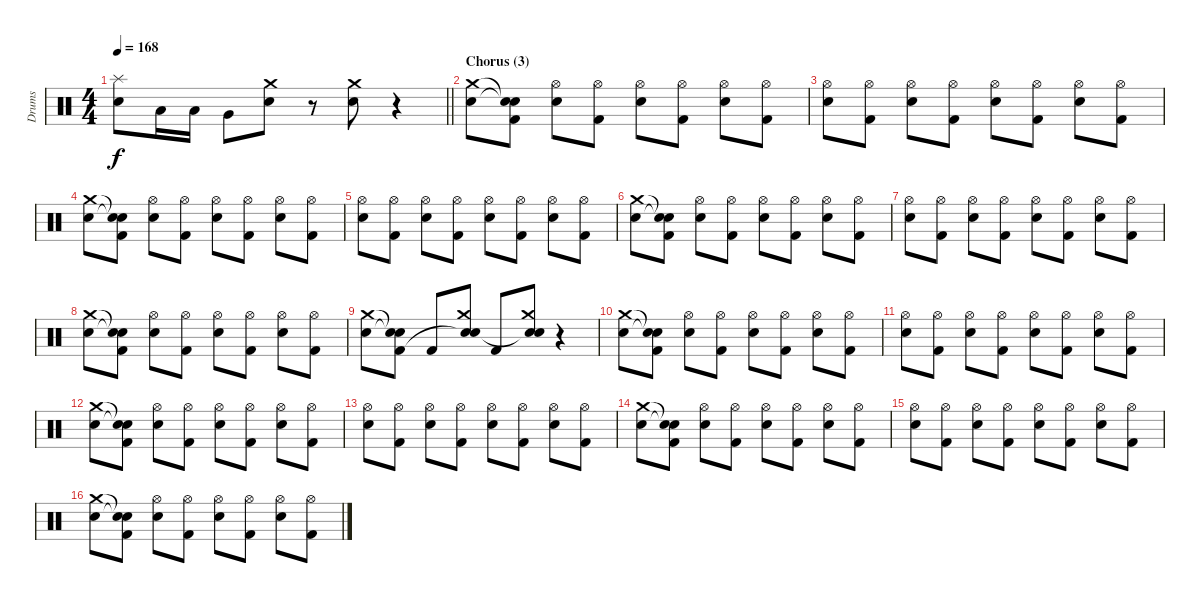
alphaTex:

\track ("Drums" "Drums") {instrument percussion}
\staff {score}
\articulation defaults
\ts (4 4)
\tempo 168
\clef neutral
\barLineRight lightlight
\ks c
("Splash (hit)" "Electric Snare (hit)").8{dy f} "Low Tom (hit)".16 "Low Tom (hit)".16 "Very Low Tom (hit)".8 ("Crash medium (hit)" "Electric Snare (hit)").8 r.8 ("Crash medium (hit)" "Electric Snare (hit)").8 r.4 |
\section ("" "Chorus (3)")
("Crash medium (hit)" "Electric Snare (hit)").8 ("Snare (hit)"{t} "Snare (hit)"{t} "Kick (hit) 2").8 ("Hi-Hat (open)" "Electric Snare (hit)").8 ("Hi-Hat (open)" "Kick (hit) 2").8 ("Hi-Hat (open)" "Electric Snare (hit)").8 ("Hi-Hat (open)" "Kick (hit) 2").8 ("Hi-Hat (open)" "Electric Snare (hit)").8 ("Hi-Hat (open)" "Kick (hit) 2").8 |
("Hi-Hat (open)" "Electric Snare (hit)").8 ("Hi-Hat (open)" "Kick (hit) 2").8 ("Hi-Hat (open)" "Electric Snare (hit)").8 ("Hi-Hat (open)" "Kick (hit) 2").8 ("Hi-Hat (open)" "Electric Snare (hit)").8 ("Hi-Hat (open)" "Kick (hit) 2").8 ("Hi-Hat (open)" "Electric Snare (hit)").8 ("Hi-Hat (open)" "Kick (hit) 2").8 |
("Crash medium (hit)" "Electric Snare (hit)").8 ("Snare (hit)"{t} "Snare (hit)"{t} "Kick (hit) 2").8 ("Hi-Hat (open)" "Electric Snare (hit)").8 ("Hi-Hat (open)" "Kick (hit) 2").8 ("Hi-Hat (open)" "Electric Snare (hit)").8 ("Hi-Hat (open)" "Kick (hit) 2").8 ("Hi-Hat (open)" "Electric Snare (hit)").8 ("Hi-Hat (open)" "Kick (hit) 2").8 |
("Hi-Hat (open)" "Electric Snare (hit)").8 ("Hi-Hat (open)" "Kick (hit) 2").8 ("Hi-Hat (open)" "Electric Snare (hit)").8 ("Hi-Hat (open)" "Kick (hit) 2").8 ("Hi-Hat (open)" "Electric Snare (hit)").8 ("Hi-Hat (open)" "Kick (hit) 2").8 ("Hi-Hat (open)" "Electric Snare (hit)").8 ("Hi-Hat (open)" "Kick (hit) 2").8 |
("Crash medium (hit)" "Electric Snare (hit)").8 ("Snare (hit)"{t} "Snare (hit)"{t} "Kick (hit) 2").8 ("Hi-Hat (open)" "Electric Snare (hit)").8 ("Hi-Hat (open)" "Kick (hit) 2").8 ("Hi-Hat (open)" "Electric Snare (hit)").8 ("Hi-Hat (open)" "Kick (hit) 2").8 ("Hi-Hat (open)" "Electric Snare (hit)").8 ("Hi-Hat (open)" "Kick (hit) 2").8 |
("Hi-Hat (open)" "Electric Snare (hit)").8 ("Hi-Hat (open)" "Kick (hit) 2").8 ("Hi-Hat (open)" "Electric Snare (hit)").8 ("Hi-Hat (open)" "Kick (hit) 2").8 ("Hi-Hat (open)" "Electric Snare (hit)").8 ("Hi-Hat (open)" "Kick (hit) 2").8 ("Hi-Hat (open)" "Electric Snare (hit)").8 ("Hi-Hat (open)" "Kick (hit) 2").8 |
("Crash medium (hit)" "Electric Snare (hit)").8 ("Snare (hit)"{t} "Snare (hit)"{t} "Kick (hit) 2").8 ("Hi-Hat (open)" "Electric Snare (hit)").8 ("Hi-Hat (open)" "Kick (hit) 2").8 ("Hi-Hat (open)" "Electric Snare (hit)").8 ("Hi-Hat (open)" "Kick (hit) 2").8 ("Hi-Hat (open)" "Electric Snare (hit)").8 ("Hi-Hat (open)" "Kick (hit) 2").8 |
("Crash medium (hit)" "Electric Snare (hit)").8 ("Snare (hit)"{t} "Snare (hit)"{t} "Kick (hit) 2").8 "Kick (hit) 2".8 ("Crash medium (hit)" "Electric Snare (hit)" "Snare (hit)"{t}).8 "Kick (hit) 2".8 ("Crash medium (hit)" "Electric Snare (hit)" "Snare (hit)"{t}).8 r.4 |
("Crash medium (hit)" "Electric Snare (hit)").8 ("Snare (hit)"{t} "Snare (hit)"{t} "Kick (hit) 2").8 ("Hi-Hat (open)" "Electric Snare (hit)").8 ("Hi-Hat (open)" "Kick (hit) 2").8 ("Hi-Hat (open)" "Electric Snare (hit)").8 ("Hi-Hat (open)" "Kick (hit) 2").8 ("Hi-Hat (open)" "Electric Snare (hit)").8 ("Hi-Hat (open)" "Kick (hit) 2").8 |
("Hi-Hat (open)" "Electric Snare (hit)").8 ("Hi-Hat (open)" "Kick (hit) 2").8 ("Hi-Hat (open)" "Electric Snare (hit)").8 ("Hi-Hat (open)" "Kick (hit) 2").8 ("Hi-Hat (open)" "Electric Snare (hit)").8 ("Hi-Hat (open)" "Kick (hit) 2").8 ("Hi-Hat (open)" "Electric Snare (hit)").8 ("Hi-Hat (open)" "Kick (hit) 2").8 |
("Crash medium (hit)" "Electric Snare (hit)").8 ("Snare (hit)"{t} "Snare (hit)"{t} "Kick (hit) 2").8 ("Hi-Hat (open)" "Electric Snare (hit)").8 ("Hi-Hat (open)" "Kick (hit) 2").8 ("Hi-Hat (open)" "Electric Snare (hit)").8 ("Hi-Hat (open)" "Kick (hit) 2").8 ("Hi-Hat (open)" "Electric Snare (hit)").8 ("Hi-Hat (open)" "Kick (hit) 2").8 |
("Hi-Hat (open)" "Electric Snare (hit)").8 ("Hi-Hat (open)" "Kick (hit) 2").8 ("Hi-Hat (open)" "Electric Snare (hit)").8 ("Hi-Hat (open)" "Kick (hit) 2").8 ("Hi-Hat (open)" "Electric Snare (hit)").8 ("Hi-Hat (open)" "Kick (hit) 2").8 ("Hi-Hat (open)" "Electric Snare (hit)").8 ("Hi-Hat (open)" "Kick (hit) 2").8 |
("Crash medium (hit)" "Electric Snare (hit)").8 ("Snare (hit)"{t} "Snare (hit)"{t} "Kick (hit) 2").8 ("Hi-Hat (open)" "Electric Snare (hit)").8 ("Hi-Hat (open)" "Kick (hit) 2").8 ("Hi-Hat (open)" "Electric Snare (hit)").8 ("Hi-Hat (open)" "Kick (hit) 2").8 ("Hi-Hat (open)" "Electric Snare (hit)").8 ("Hi-Hat (open)" "Kick (hit) 2").8 |
("Hi-Hat (open)" "Electric Snare (hit)").8 ("Hi-Hat (open)" "Kick (hit) 2").8 ("Hi-Hat (open)" "Electric Snare (hit)").8 ("Hi-Hat (open)" "Kick (hit) 2").8 ("Hi-Hat (open)" "Electric Snare (hit)").8 ("Hi-Hat (open)" "Kick (hit) 2").8 ("Hi-Hat (open)" "Electric Snare (hit)").8 ("Hi-Hat (open)" "Kick (hit) 2").8 |
("Crash medium (hit)" "Electric Snare (hit)").8 ("Snare (hit)"{t} "Snare (hit)"{t} "Kick (hit) 2").8 ("Hi-Hat (open)" "Electric Snare (hit)").8 ("Hi-Hat (open)" "Kick (hit) 2").8 ("Hi-Hat (open)" "Electric Snare (hit)").8 ("Hi-Hat (open)" "Kick (hit) 2").8 ("Hi-Hat (open)" "Electric Snare (hit)").8 ("Hi-Hat (open)" "Kick (hit) 2").8
